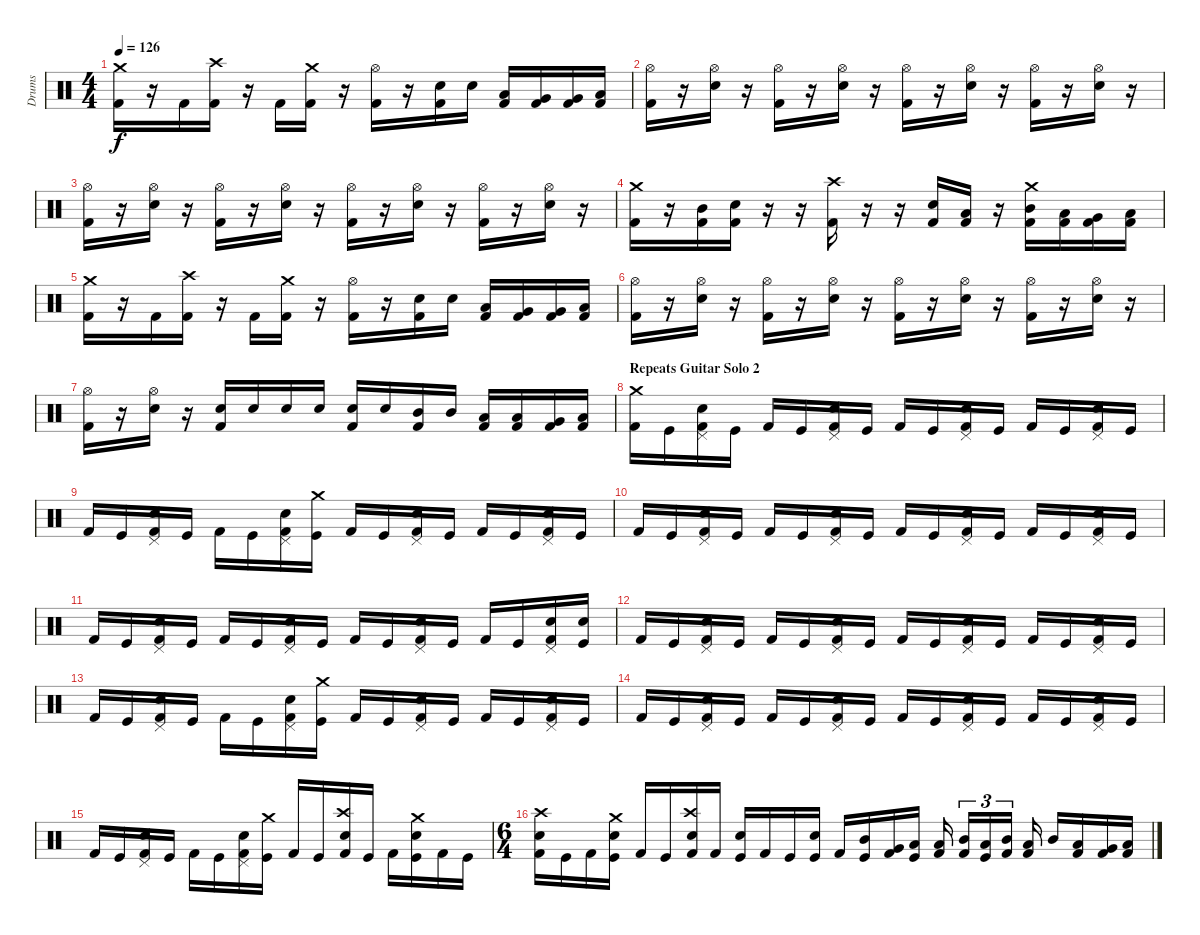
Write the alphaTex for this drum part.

\track ("Drums" "Drums") {instrument percussion}
\staff {score}
\articulation defaults
\ts (4 4)
\tempo 126
\clef neutral
\ks c
("Crash medium (hit)" "Kick (hit) 2").16{dy f} r.16 "Kick (hit) 2".16 ("Crash high (hit)" "Kick (hit) 2").16 r.16 "Kick (hit) 2".16 ("Crash medium (hit)" "Kick (hit) 2").16 r.16 ("Hi-Hat (open)" "Kick (hit) 2").16 r.16 ("Electric Snare (hit)" "Kick (hit) 2").16 "Electric Snare (hit)".16 ("Low Tom (hit)" "Kick (hit) 2").16 ("Very Low Tom (hit)" "Kick (hit) 2").16 ("Very Low Tom (hit)" "Kick (hit) 2").16 ("Low Floor Tom (hit)" "Kick (hit) 2").16 |
("Hi-Hat (open)" "Kick (hit) 2").16 r.16 ("Hi-Hat (open)" "Electric Snare (hit)").16 r.16 ("Hi-Hat (open)" "Kick (hit) 2").16 r.16 ("Hi-Hat (open)" "Electric Snare (hit)").16 r.16 ("Hi-Hat (open)" "Kick (hit) 2").16 r.16 ("Hi-Hat (open)" "Electric Snare (hit)").16 r.16 ("Hi-Hat (open)" "Kick (hit) 2").16 r.16 ("Hi-Hat (open)" "Electric Snare (hit)").16 r.16 |
("Hi-Hat (open)" "Kick (hit) 2").16 r.16 ("Hi-Hat (open)" "Electric Snare (hit)").16 r.16 ("Hi-Hat (open)" "Kick (hit) 2").16 r.16 ("Hi-Hat (open)" "Electric Snare (hit)").16 r.16 ("Hi-Hat (open)" "Kick (hit) 2").16 r.16 ("Hi-Hat (open)" "Electric Snare (hit)").16 r.16 ("Hi-Hat (open)" "Kick (hit) 2").16 r.16 ("Hi-Hat (open)" "Electric Snare (hit)").16 r.16 |
("Crash medium (hit)" "Kick (hit) 2").16 r.16 ("Mid Tom (hit)" "Kick (hit) 2").16 ("Electric Snare (hit)" "Kick (hit) 2").16 r.16 r.16 ("Crash high (hit)" "Kick (hit) 2").16 r.16 r.16 ("Electric Snare (hit)" "Kick (hit) 2").16 ("Low Tom (hit)" "Kick (hit) 2").16 r.16 ("Crash medium (hit)" "Mid Tom (hit)" "Kick (hit) 2").16 ("Low Tom (hit)" "Kick (hit) 2").16 ("Very Low Tom (hit)" "Kick (hit) 2").16 ("Low Floor Tom (hit)" "Kick (hit) 2").16 |
("Crash medium (hit)" "Kick (hit) 2").16 r.16 "Kick (hit) 2".16 ("Crash high (hit)" "Kick (hit) 2").16 r.16 "Kick (hit) 2".16 ("Crash medium (hit)" "Kick (hit) 2").16 r.16 ("Hi-Hat (open)" "Kick (hit) 2").16 r.16 ("Electric Snare (hit)" "Kick (hit) 2").16 "Electric Snare (hit)".16 ("Low Tom (hit)" "Kick (hit) 2").16 ("Very Low Tom (hit)" "Kick (hit) 2").16 ("Very Low Tom (hit)" "Kick (hit) 2").16 ("Low Floor Tom (hit)" "Kick (hit) 2").16 |
("Hi-Hat (open)" "Kick (hit) 2").16 r.16 ("Hi-Hat (open)" "Electric Snare (hit)").16 r.16 ("Hi-Hat (open)" "Kick (hit) 2").16 r.16 ("Hi-Hat (open)" "Electric Snare (hit)").16 r.16 ("Hi-Hat (open)" "Kick (hit) 2").16 r.16 ("Hi-Hat (open)" "Electric Snare (hit)").16 r.16 ("Hi-Hat (open)" "Kick (hit) 2").16 r.16 ("Hi-Hat (open)" "Electric Snare (hit)").16 r.16 |
("Hi-Hat (open)" "Kick (hit) 2").16 r.16 ("Hi-Hat (open)" "Electric Snare (hit)").16 r.16 ("Electric Snare (hit)" "Kick (hit) 2").16 "Electric Snare (hit)".16 "Electric Snare (hit)".16 "Electric Snare (hit)".16 ("Electric Snare (hit)" "Kick (hit) 2").16 "Electric Snare (hit)".16 ("Mid Tom (hit)" "Kick (hit) 2").16 "Mid Tom (hit)".16 ("Low Tom (hit)" "Kick (hit) 2").16 ("Low Tom (hit)" "Kick (hit) 2").16 ("Very Low Tom (hit)" "Kick (hit) 2").16 ("Low Floor Tom (hit)" "Kick (hit) 2").16 |
\section ("" "Repeats Guitar Solo 2")
("Crash medium (hit)" "Kick (hit) 2").16 "Kick (hit)".16 ("Pedal Hi-Hat (hit)" "Electric Snare (hit)" "Kick (hit) 2").16 "Kick (hit)".16 "Kick (hit) 2".16 "Kick (hit)".16 ("Pedal Hi-Hat (hit)" "Electric Snare (hit)" "Kick (hit) 2").16 "Kick (hit)".16 "Kick (hit) 2".16 "Kick (hit)".16 ("Pedal Hi-Hat (hit)" "Electric Snare (hit)" "Kick (hit) 2").16 "Kick (hit)".16 "Kick (hit) 2".16 "Kick (hit)".16 ("Pedal Hi-Hat (hit)" "Electric Snare (hit)" "Kick (hit) 2").16 "Kick (hit)".16 |
"Kick (hit) 2".16 "Kick (hit)".16 ("Pedal Hi-Hat (hit)" "Electric Snare (hit)" "Kick (hit) 2").16 "Kick (hit)".16 "Kick (hit) 2".16 "Kick (hit)".16 ("Pedal Hi-Hat (hit)" "Electric Snare (hit)" "Kick (hit) 2").16 ("Crash medium (hit)" "Kick (hit)").16 "Kick (hit) 2".16 "Kick (hit)".16 ("Pedal Hi-Hat (hit)" "Electric Snare (hit)" "Kick (hit) 2").16 "Kick (hit)".16 "Kick (hit) 2".16 "Kick (hit)".16 ("Pedal Hi-Hat (hit)" "Electric Snare (hit)" "Kick (hit) 2").16 "Kick (hit)".16 |
"Kick (hit) 2".16 "Kick (hit)".16 ("Pedal Hi-Hat (hit)" "Electric Snare (hit)" "Kick (hit) 2").16 "Kick (hit)".16 "Kick (hit) 2".16 "Kick (hit)".16 ("Pedal Hi-Hat (hit)" "Electric Snare (hit)" "Kick (hit) 2").16 "Kick (hit)".16 "Kick (hit) 2".16 "Kick (hit)".16 ("Pedal Hi-Hat (hit)" "Electric Snare (hit)" "Kick (hit) 2").16 "Kick (hit)".16 "Kick (hit) 2".16 "Kick (hit)".16 ("Pedal Hi-Hat (hit)" "Electric Snare (hit)" "Kick (hit) 2").16 "Kick (hit)".16 |
"Kick (hit) 2".16 "Kick (hit)".16 ("Pedal Hi-Hat (hit)" "Electric Snare (hit)" "Kick (hit) 2").16 "Kick (hit)".16 "Kick (hit) 2".16 "Kick (hit)".16 ("Pedal Hi-Hat (hit)" "Electric Snare (hit)" "Kick (hit) 2").16 "Kick (hit)".16 "Kick (hit) 2".16 "Kick (hit)".16 ("Pedal Hi-Hat (hit)" "Electric Snare (hit)" "Kick (hit) 2").16 "Kick (hit)".16 "Kick (hit) 2".16 "Kick (hit)".16 ("Pedal Hi-Hat (hit)" "Electric Snare (hit)" "Kick (hit) 2").16 ("Electric Snare (hit)" "Kick (hit)").16 |
"Kick (hit) 2".16 "Kick (hit)".16 ("Pedal Hi-Hat (hit)" "Electric Snare (hit)" "Kick (hit) 2").16 "Kick (hit)".16 "Kick (hit) 2".16 "Kick (hit)".16 ("Pedal Hi-Hat (hit)" "Electric Snare (hit)" "Kick (hit) 2").16 "Kick (hit)".16 "Kick (hit) 2".16 "Kick (hit)".16 ("Pedal Hi-Hat (hit)" "Electric Snare (hit)" "Kick (hit) 2").16 "Kick (hit)".16 "Kick (hit) 2".16 "Kick (hit)".16 ("Pedal Hi-Hat (hit)" "Electric Snare (hit)" "Kick (hit) 2").16 "Kick (hit)".16 |
"Kick (hit) 2".16 "Kick (hit)".16 ("Pedal Hi-Hat (hit)" "Electric Snare (hit)" "Kick (hit) 2").16 "Kick (hit)".16 "Kick (hit) 2".16 "Kick (hit)".16 ("Pedal Hi-Hat (hit)" "Electric Snare (hit)" "Kick (hit) 2").16 ("Crash medium (hit)" "Kick (hit)").16 "Kick (hit) 2".16 "Kick (hit)".16 ("Pedal Hi-Hat (hit)" "Electric Snare (hit)" "Kick (hit) 2").16 "Kick (hit)".16 "Kick (hit) 2".16 "Kick (hit)".16 ("Pedal Hi-Hat (hit)" "Electric Snare (hit)" "Kick (hit) 2").16 "Kick (hit)".16 |
"Kick (hit) 2".16 "Kick (hit)".16 ("Pedal Hi-Hat (hit)" "Electric Snare (hit)" "Kick (hit) 2").16 "Kick (hit)".16 "Kick (hit) 2".16 "Kick (hit)".16 ("Pedal Hi-Hat (hit)" "Electric Snare (hit)" "Kick (hit) 2").16 "Kick (hit)".16 "Kick (hit) 2".16 "Kick (hit)".16 ("Pedal Hi-Hat (hit)" "Electric Snare (hit)" "Kick (hit) 2").16 "Kick (hit)".16 "Kick (hit) 2".16 "Kick (hit)".16 ("Pedal Hi-Hat (hit)" "Electric Snare (hit)" "Kick (hit) 2").16 "Kick (hit)".16 |
"Kick (hit) 2".16 "Kick (hit)".16 ("Pedal Hi-Hat (hit)" "Electric Snare (hit)" "Kick (hit) 2").16 "Kick (hit)".16 "Kick (hit) 2".16 "Kick (hit)".16 ("Pedal Hi-Hat (hit)" "Electric Snare (hit)" "Kick (hit) 2").16 ("Crash medium (hit)" "Kick (hit)").16 "Kick (hit) 2".16 "Kick (hit)".16 ("Crash high (hit)" "Electric Snare (hit)" "Kick (hit) 2").16 "Kick (hit)".16 "Kick (hit) 2".16 ("Crash medium (hit)" "Electric Snare (hit)" "Kick (hit)").16 "Kick (hit) 2".16 "Kick (hit)".16 |
\ts (6 4)
("Crash high (hit)" "Electric Snare (hit)" "Kick (hit) 2").16 "Kick (hit)".16 "Kick (hit) 2".16 ("Crash medium (hit)" "Electric Snare (hit)" "Kick (hit)").16 "Kick (hit) 2".16 "Kick (hit)".16 ("Crash high (hit)" "Electric Snare (hit)" "Kick (hit) 2").16 "Kick (hit) 2".16 ("Electric Snare (hit)" "Kick (hit)").16 "Kick (hit) 2".16 "Kick (hit)".16 ("Electric Snare (hit)" "Kick (hit)").16 "Kick (hit) 2".16 ("Mid Tom (hit)" "Kick (hit)").16 ("Very Low Tom (hit)" "Kick (hit) 2").16 ("Low Tom (hit)" "Kick (hit)").16 ("Low Floor Tom (hit)" "Kick (hit) 2").16 ("Mid Tom (hit)" "Kick (hit) 2").16{tu (3 2)} ("Low Tom (hit)" "Kick (hit)").16{tu (3 2)} ("Mid Tom (hit)" "Kick (hit) 2").16{tu (3 2)} ("Low Tom (hit)" "Kick (hit) 2").16 "Mid Tom (hit)".16 ("Low Tom (hit)" "Kick (hit) 2").16 ("Very Low Tom (hit)" "Kick (hit) 2").16 ("Low Floor Tom (hit)" "Kick (hit) 2").16
